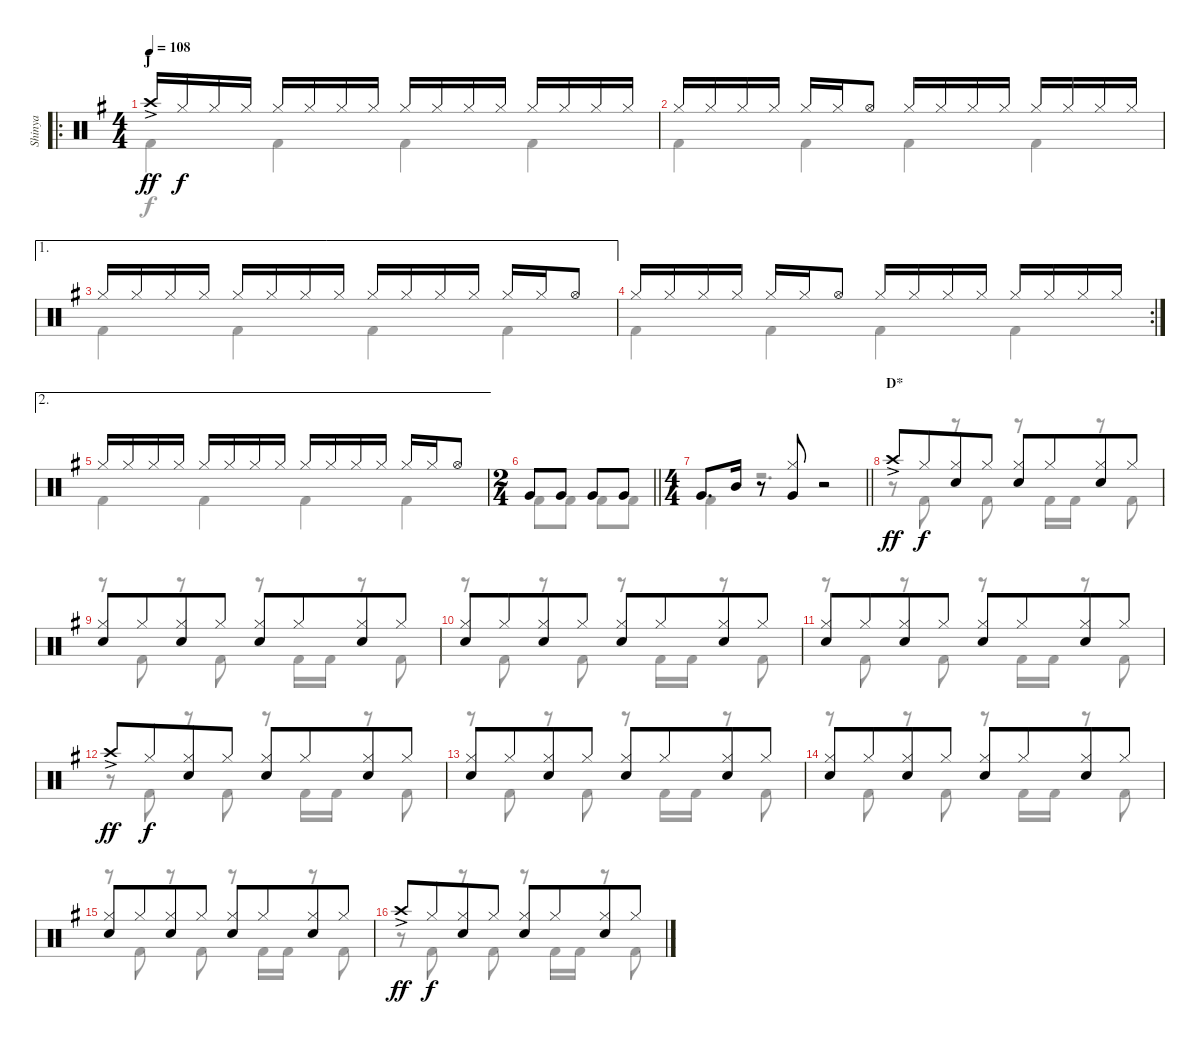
\track ("Shinya" "Shinya") {instrument percussion}
\staff {score}
\articulation defaults
\voice
\ro
\ts (4 4)
\section ("" "J")
\tempo 108
\clef neutral
\ks eminor "Crash high (hit)"{ac}.16{dy ff} "Hi-Hat (closed)".16{dy f} "Hi-Hat (closed)".16 "Hi-Hat (closed)".16 "Hi-Hat (closed)".16 "Hi-Hat (closed)".16 "Hi-Hat (closed)".16 "Hi-Hat (closed)".16 "Hi-Hat (closed)".16 "Hi-Hat (closed)".16 "Hi-Hat (closed)".16 "Hi-Hat (closed)".16 "Hi-Hat (closed)".16 "Hi-Hat (closed)".16 "Hi-Hat (closed)".16 "Hi-Hat (closed)".16
|
"Hi-Hat (closed)".16 "Hi-Hat (closed)".16 "Hi-Hat (closed)".16 "Hi-Hat (closed)".16 "Hi-Hat (closed)".16 "Hi-Hat (closed)".16 "Hi-Hat (open)".8 "Hi-Hat (closed)".16 "Hi-Hat (closed)".16 "Hi-Hat (closed)".16 "Hi-Hat (closed)".16 "Hi-Hat (closed)".16 "Hi-Hat (closed)".16 "Hi-Hat (closed)".16 "Hi-Hat (closed)".16 |
\ae 1 "Hi-Hat (closed)".16 "Hi-Hat (closed)".16 "Hi-Hat (closed)".16 "Hi-Hat (closed)".16 "Hi-Hat (closed)".16 "Hi-Hat (closed)".16 "Hi-Hat (closed)".16 "Hi-Hat (closed)".16 "Hi-Hat (closed)".16 "Hi-Hat (closed)".16 "Hi-Hat (closed)".16 "Hi-Hat (closed)".16 "Hi-Hat (closed)".16 "Hi-Hat (closed)".16 "Hi-Hat (open)".8
|
\rc 2 "Hi-Hat (closed)".16 "Hi-Hat (closed)".16 "Hi-Hat (closed)".16 "Hi-Hat (closed)".16 "Hi-Hat (closed)".16 "Hi-Hat (closed)".16 "Hi-Hat (open)".8 "Hi-Hat (closed)".16 "Hi-Hat (closed)".16 "Hi-Hat (closed)".16 "Hi-Hat (closed)".16 "Hi-Hat (closed)".16 "Hi-Hat (closed)".16 "Hi-Hat (closed)".16 "Hi-Hat (closed)".16
|
\ae 2 "Hi-Hat (closed)".16 "Hi-Hat (closed)".16 "Hi-Hat (closed)".16 "Hi-Hat (closed)".16 "Hi-Hat (closed)".16 "Hi-Hat (closed)".16 "Hi-Hat (closed)".16 "Hi-Hat (closed)".16 "Hi-Hat (closed)".16 "Hi-Hat (closed)".16 "Hi-Hat (closed)".16 "Hi-Hat (closed)".16 "Hi-Hat (closed)".16 "Hi-Hat (closed)".16 "Hi-Hat (open)".8
|
\ts (2 4)
\barLineRight lightlight "Very Low Tom (hit)".8 "Very Low Tom (hit)".8 "Very Low Tom (hit)".8 "Very Low Tom (hit)".8
|
\ts (4 4)
\barLineRight lightlight "Very Low Tom (hit)".8{d} "Mid Tom (hit)".16
r.8 ("Hi-Hat (closed)" "Very Low Tom (hit)").8 r.2 |
\section ("" "D*")
"Crash high (hit)"{ac}.8{dy ff} "Hi-Hat (closed)".8{dy f beam merge} ("Hi-Hat (closed)" "Snare (hit) 2").8 "Hi-Hat (closed)".8 ("Hi-Hat (closed)" "Snare (hit) 2").8 "Hi-Hat (closed)".8{beam merge} ("Hi-Hat (closed)" "Snare (hit) 2").8 "Hi-Hat (closed)".8 |
("Hi-Hat (closed)" "Snare (hit) 2").8 "Hi-Hat (closed)".8{beam merge} ("Hi-Hat (closed)" "Snare (hit) 2").8 "Hi-Hat (closed)".8 ("Hi-Hat (closed)" "Snare (hit) 2").8 "Hi-Hat (closed)".8{beam merge} ("Hi-Hat (closed)" "Snare (hit) 2").8 "Hi-Hat (closed)".8 |
("Hi-Hat (closed)" "Snare (hit) 2").8 "Hi-Hat (closed)".8{beam merge} ("Hi-Hat (closed)" "Snare (hit) 2").8 "Hi-Hat (closed)".8 ("Hi-Hat (closed)" "Snare (hit) 2").8 "Hi-Hat (closed)".8{beam merge} ("Hi-Hat (closed)" "Snare (hit) 2").8 "Hi-Hat (closed)".8 |
("Hi-Hat (closed)" "Snare (hit) 2").8 "Hi-Hat (closed)".8{beam merge} ("Hi-Hat (closed)" "Snare (hit) 2").8 "Hi-Hat (closed)".8 ("Hi-Hat (closed)" "Snare (hit) 2").8 "Hi-Hat (closed)".8{beam merge} ("Hi-Hat (closed)" "Snare (hit) 2").8 "Hi-Hat (closed)".8 |
"Crash high (hit)"{ac}.8{dy ff} "Hi-Hat (closed)".8{dy f beam merge} ("Hi-Hat (closed)" "Snare (hit) 2").8 "Hi-Hat (closed)".8 ("Hi-Hat (closed)" "Snare (hit) 2").8 "Hi-Hat (closed)".8{beam merge} ("Hi-Hat (closed)" "Snare (hit) 2").8 "Hi-Hat (closed)".8 |
("Hi-Hat (closed)" "Snare (hit) 2").8 "Hi-Hat (closed)".8{beam merge} ("Hi-Hat (closed)" "Snare (hit) 2").8 "Hi-Hat (closed)".8 ("Hi-Hat (closed)" "Snare (hit) 2").8 "Hi-Hat (closed)".8{beam merge} ("Hi-Hat (closed)" "Snare (hit) 2").8 "Hi-Hat (closed)".8 |
("Hi-Hat (closed)" "Snare (hit) 2").8 "Hi-Hat (closed)".8{beam merge} ("Hi-Hat (closed)" "Snare (hit) 2").8 "Hi-Hat (closed)".8 ("Hi-Hat (closed)" "Snare (hit) 2").8 "Hi-Hat (closed)".8{beam merge} ("Hi-Hat (closed)" "Snare (hit) 2").8 "Hi-Hat (closed)".8 |
("Hi-Hat (closed)" "Snare (hit) 2").8 "Hi-Hat (closed)".8{beam merge} ("Hi-Hat (closed)" "Snare (hit) 2").8 "Hi-Hat (closed)".8 ("Hi-Hat (closed)" "Snare (hit) 2").8 "Hi-Hat (closed)".8{beam merge} ("Hi-Hat (closed)" "Snare (hit) 2").8 "Hi-Hat (closed)".8 |
"Crash high (hit)"{ac}.8{dy ff} "Hi-Hat (closed)".8{dy f beam merge} ("Hi-Hat (closed)" "Snare (hit) 2").8 "Hi-Hat (closed)".8 ("Hi-Hat (closed)" "Snare (hit) 2").8 "Hi-Hat (closed)".8{beam merge} ("Hi-Hat (closed)" "Snare (hit) 2").8 "Hi-Hat (closed)".8
\voice
\clef neutral
\ottava regular
\simile none
\ks eminor "Kick (hit) 2".4{dy f} "Kick (hit) 2".4 "Kick (hit) 2".4 "Kick (hit) 2".4
|
"Kick (hit) 2".4 "Kick (hit) 2".4 "Kick (hit) 2".4 "Kick (hit) 2".4 |
"Kick (hit) 2".4 "Kick (hit) 2".4 "Kick (hit) 2".4 "Kick (hit) 2".4 |
"Kick (hit) 2".4 "Kick (hit) 2".4 "Kick (hit) 2".4 "Kick (hit) 2".4 |
"Kick (hit) 2".4 "Kick (hit) 2".4 "Kick (hit) 2".4 "Kick (hit) 2".4 |
\barLineRight lightlight "Kick (hit) 2".8 "Kick (hit) 2".8 "Kick (hit) 2".8 "Kick (hit) 2".8
|
\barLineRight lightlight "Kick (hit) 2".4
r.2{d} |
r.8 "Kick (hit) 2".8 r.8 "Kick (hit) 2".8 r.8 "Kick (hit) 2".16 "Kick (hit) 2".16 r.8 "Kick (hit) 2".8 |
r.8 "Kick (hit) 2".8 r.8 "Kick (hit) 2".8 r.8 "Kick (hit) 2".16 "Kick (hit) 2".16 r.8 "Kick (hit) 2".8 |
r.8 "Kick (hit) 2".8 r.8 "Kick (hit) 2".8 r.8 "Kick (hit) 2".16 "Kick (hit) 2".16 r.8 "Kick (hit) 2".8 |
r.8 "Kick (hit) 2".8 r.8 "Kick (hit) 2".8 r.8 "Kick (hit) 2".16 "Kick (hit) 2".16 r.8 "Kick (hit) 2".8 |
r.8 "Kick (hit) 2".8 r.8 "Kick (hit) 2".8 r.8 "Kick (hit) 2".16 "Kick (hit) 2".16 r.8 "Kick (hit) 2".8 |
r.8 "Kick (hit) 2".8 r.8 "Kick (hit) 2".8 r.8 "Kick (hit) 2".16 "Kick (hit) 2".16 r.8 "Kick (hit) 2".8 |
r.8 "Kick (hit) 2".8 r.8 "Kick (hit) 2".8 r.8 "Kick (hit) 2".16 "Kick (hit) 2".16 r.8 "Kick (hit) 2".8 |
r.8 "Kick (hit) 2".8 r.8 "Kick (hit) 2".8 r.8 "Kick (hit) 2".16 "Kick (hit) 2".16 r.8 "Kick (hit) 2".8 |
r.8 "Kick (hit) 2".8 r.8 "Kick (hit) 2".8 r.8 "Kick (hit) 2".16 "Kick (hit) 2".16 r.8 "Kick (hit) 2".8
